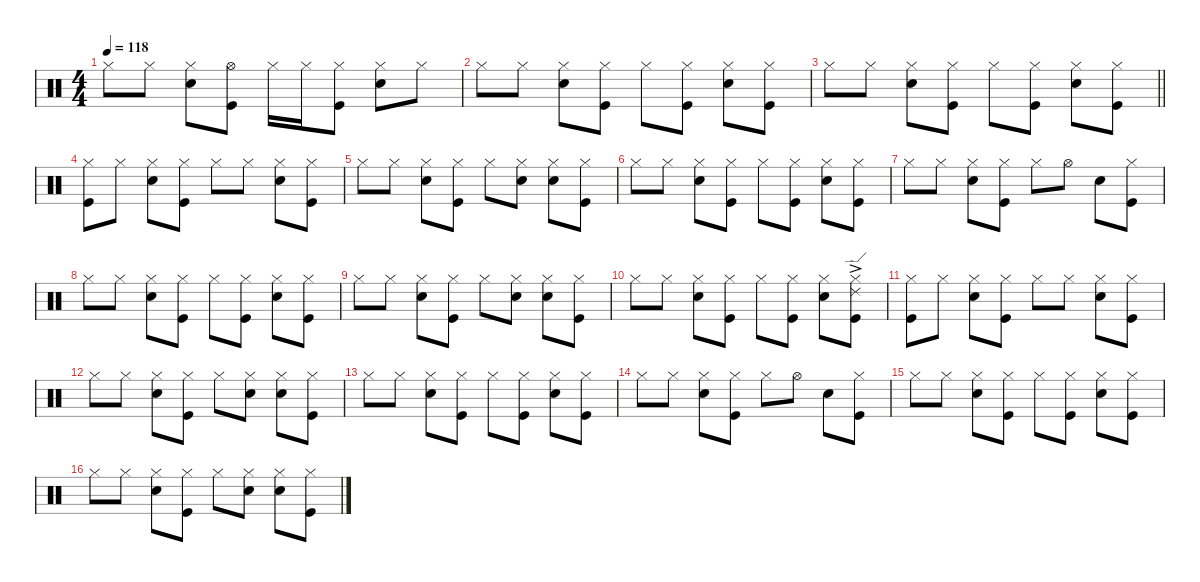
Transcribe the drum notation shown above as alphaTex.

\defaultSystemsLayout 4
\hideDynamics
\bracketExtendMode nobrackets
\singleTrackTrackNamePolicy hidden
\multiTrackTrackNamePolicy hidden
\firstSystemTrackNameMode fullname
\otherSystemsTrackNameOrientation horizontal
\track ("Drums" "drm.") {instrument percussion}
\staff {score}
\articulation defaults
\ts (4 4)
\tempo 118
\clef neutral
\ks c "Hi-Hat (closed)".8{dy f beam Down} "Hi-Hat (closed)".8{beam Down}
("Hi-Hat (closed)" "Snare (hit) 2").8{beam Down} ("Hi-Hat (open)" "Kick (hit)").8{beam Down} "Hi-Hat (closed)".16{beam Down} "Hi-Hat (closed)".16{beam Down} ("Hi-Hat (closed)" "Kick (hit)").8{beam Down} ("Hi-Hat (closed)" "Snare (hit) 2").8{beam Down} "Hi-Hat (closed)".8{beam Down} |
"Hi-Hat (closed)".8{beam Down} "Hi-Hat (closed)".8{beam Down} ("Hi-Hat (closed)" "Snare (hit) 2").8{beam Down} ("Hi-Hat (closed)" "Kick (hit)").8{beam Down} "Hi-Hat (closed)".8{beam Down} ("Hi-Hat (closed)" "Kick (hit)").8{beam Down} ("Hi-Hat (closed)" "Snare (hit) 2").8{beam Down} ("Hi-Hat (closed)" "Kick (hit)").8{beam Down} |
\barLineRight lightlight "Hi-Hat (closed)".8{beam Down} "Hi-Hat (closed)".8{beam Down}
("Hi-Hat (closed)" "Snare (hit) 2").8{beam Down} ("Hi-Hat (closed)" "Kick (hit)").8{beam Down} "Hi-Hat (closed)".8{beam Down} ("Hi-Hat (closed)" "Kick (hit)").8{beam Down} ("Hi-Hat (closed)" "Snare (hit) 2").8{beam Down} ("Hi-Hat (closed)" "Kick (hit)").8{beam Down} |
("Hi-Hat (closed)" "Kick (hit)").8{beam Down} "Hi-Hat (closed)".8{beam Down} ("Hi-Hat (closed)" "Snare (hit) 2").8{beam Down} ("Hi-Hat (closed)" "Kick (hit)").8{beam Down} "Hi-Hat (closed)".8{beam Down} "Hi-Hat (closed)".8{beam Down} ("Hi-Hat (closed)" "Snare (hit) 2").8{beam Down} ("Hi-Hat (closed)" "Kick (hit)").8{beam Down} |
"Hi-Hat (closed)".8{beam Down} "Hi-Hat (closed)".8{beam Down} ("Hi-Hat (closed)" "Snare (hit) 2").8{beam Down} ("Hi-Hat (closed)" "Kick (hit)").8{beam Down} "Hi-Hat (closed)".8{beam Down} ("Hi-Hat (closed)" "Snare (hit) 2").8{beam Down} ("Hi-Hat (closed)" "Snare (hit) 2").8{beam Down} ("Hi-Hat (closed)" "Kick (hit)").8{beam Down} |
"Hi-Hat (closed)".8{beam Down} "Hi-Hat (closed)".8{beam Down} ("Hi-Hat (closed)" "Snare (hit) 2").8{beam Down} ("Hi-Hat (closed)" "Kick (hit)").8{beam Down} "Hi-Hat (closed)".8{beam Down} ("Hi-Hat (closed)" "Kick (hit)").8{beam Down} ("Hi-Hat (closed)" "Snare (hit) 2").8{beam Down} ("Hi-Hat (closed)" "Kick (hit)").8{beam Down} |
"Hi-Hat (closed)".8{beam Down} "Hi-Hat (closed)".8{beam Down} ("Hi-Hat (closed)" "Snare (hit) 2").8{beam Down} ("Hi-Hat (closed)" "Kick (hit)").8{beam Down} "Hi-Hat (closed)".8{beam Down} "Hi-Hat (open)".8{beam Down} "Snare (hit) 2".8{beam Down} ("Hi-Hat (closed)" "Kick (hit)").8{beam Down} |
"Hi-Hat (closed)".8{beam Down} "Hi-Hat (closed)".8{beam Down} ("Hi-Hat (closed)" "Snare (hit) 2").8{beam Down} ("Hi-Hat (closed)" "Kick (hit)").8{beam Down} "Hi-Hat (closed)".8{beam Down} ("Hi-Hat (closed)" "Kick (hit)").8{beam Down} ("Hi-Hat (closed)" "Snare (hit) 2").8{beam Down} ("Hi-Hat (closed)" "Kick (hit)").8{beam Down} |
"Hi-Hat (closed)".8{beam Down} "Hi-Hat (closed)".8{beam Down} ("Hi-Hat (closed)" "Snare (hit) 2").8{beam Down} ("Hi-Hat (closed)" "Kick (hit)").8{beam Down} "Hi-Hat (closed)".8{beam Down} ("Hi-Hat (closed)" "Snare (hit) 2").8{beam Down} ("Hi-Hat (closed)" "Snare (hit) 2").8{beam Down} ("Hi-Hat (closed)" "Kick (hit)").8{beam Down} |
"Hi-Hat (closed)".8{beam Down} "Hi-Hat (closed)".8{beam Down} ("Hi-Hat (closed)" "Snare (hit) 2").8{beam Down} ("Hi-Hat (closed)" "Kick (hit)").8{beam Down} "Hi-Hat (closed)".8{beam Down} ("Hi-Hat (closed)" "Kick (hit)").8{beam Down} ("Hi-Hat (closed)" "Snare (hit) 2").8{beam Down} ("Hi-Hat (closed)" "Ride (edge) 2"{ac} "Kick (hit)").8{beam Down} |
("Hi-Hat (closed)" "Kick (hit)").8{beam Down} "Hi-Hat (closed)".8{beam Down} ("Hi-Hat (closed)" "Snare (hit) 2").8{beam Down} ("Hi-Hat (closed)" "Kick (hit)").8{beam Down} "Hi-Hat (closed)".8{beam Down} "Hi-Hat (closed)".8{beam Down} ("Hi-Hat (closed)" "Snare (hit) 2").8{beam Down} ("Hi-Hat (closed)" "Kick (hit)").8{beam Down} |
"Hi-Hat (closed)".8{beam Down} "Hi-Hat (closed)".8{beam Down} ("Hi-Hat (closed)" "Snare (hit) 2").8{beam Down} ("Hi-Hat (closed)" "Kick (hit)").8{beam Down} "Hi-Hat (closed)".8{beam Down} ("Hi-Hat (closed)" "Snare (hit) 2").8{beam Down} ("Hi-Hat (closed)" "Snare (hit) 2").8{beam Down} ("Hi-Hat (closed)" "Kick (hit)").8{beam Down} |
"Hi-Hat (closed)".8{beam Down} "Hi-Hat (closed)".8{beam Down} ("Hi-Hat (closed)" "Snare (hit) 2").8{beam Down} ("Hi-Hat (closed)" "Kick (hit)").8{beam Down} "Hi-Hat (closed)".8{beam Down} ("Hi-Hat (closed)" "Kick (hit)").8{beam Down} ("Hi-Hat (closed)" "Snare (hit) 2").8{beam Down} ("Hi-Hat (closed)" "Kick (hit)").8{beam Down} |
"Hi-Hat (closed)".8{beam Down} "Hi-Hat (closed)".8{beam Down} ("Hi-Hat (closed)" "Snare (hit) 2").8{beam Down} ("Hi-Hat (closed)" "Kick (hit)").8{beam Down} "Hi-Hat (closed)".8{beam Down} "Hi-Hat (open)".8{beam Down} "Snare (hit) 2".8{beam Down} ("Hi-Hat (closed)" "Kick (hit)").8{beam Down} |
"Hi-Hat (closed)".8{beam Down} "Hi-Hat (closed)".8{beam Down} ("Hi-Hat (closed)" "Snare (hit) 2").8{beam Down} ("Hi-Hat (closed)" "Kick (hit)").8{beam Down} "Hi-Hat (closed)".8{beam Down} ("Hi-Hat (closed)" "Kick (hit)").8{beam Down} ("Hi-Hat (closed)" "Snare (hit) 2").8{beam Down} ("Hi-Hat (closed)" "Kick (hit)").8{beam Down} |
"Hi-Hat (closed)".8{beam Down} "Hi-Hat (closed)".8{beam Down} ("Hi-Hat (closed)" "Snare (hit) 2").8{beam Down} ("Hi-Hat (closed)" "Kick (hit)").8{beam Down} "Hi-Hat (closed)".8{beam Down} ("Hi-Hat (closed)" "Snare (hit) 2").8{beam Down} ("Hi-Hat (closed)" "Snare (hit) 2").8{beam Down} ("Hi-Hat (closed)" "Kick (hit)").8{beam Down}
